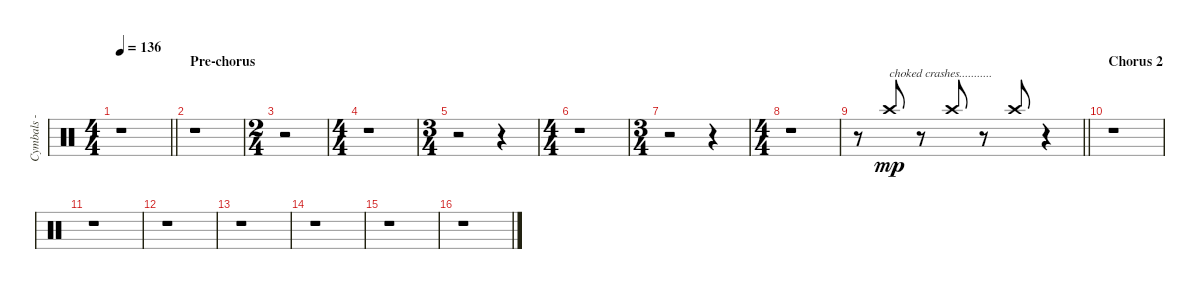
\track ("Cymbals - crash - right" "Cymbals - ") {instrument percussion}
\staff {score}
\articulation defaults
\ts (4 4)
\tempo 136
\clef neutral
\barLineRight lightlight
\ks c
r.1{dy mp} |
\section ("" "Pre-chorus")
r.1 |
\ts (2 4)
r.2 |
\ts (4 4)
r.1 |
\ts (3 4)
r.2 r.4 |
\ts (4 4)
r.1 |
\ts (3 4)
r.2 r.4 |
\ts (4 4)
r.1 |
\barLineRight lightlight
r.8 "Crash high (hit)".8{txt "choked crashes..........." beam Up} r.8 "Crash high (hit)".8{beam Up} r.8 "Crash high (hit)".8{beam Up} r.4 |
\section ("" "Chorus 2")
r.1 |
r.1 |
r.1 |
r.1 |
r.1 |
r.1 |
r.1
